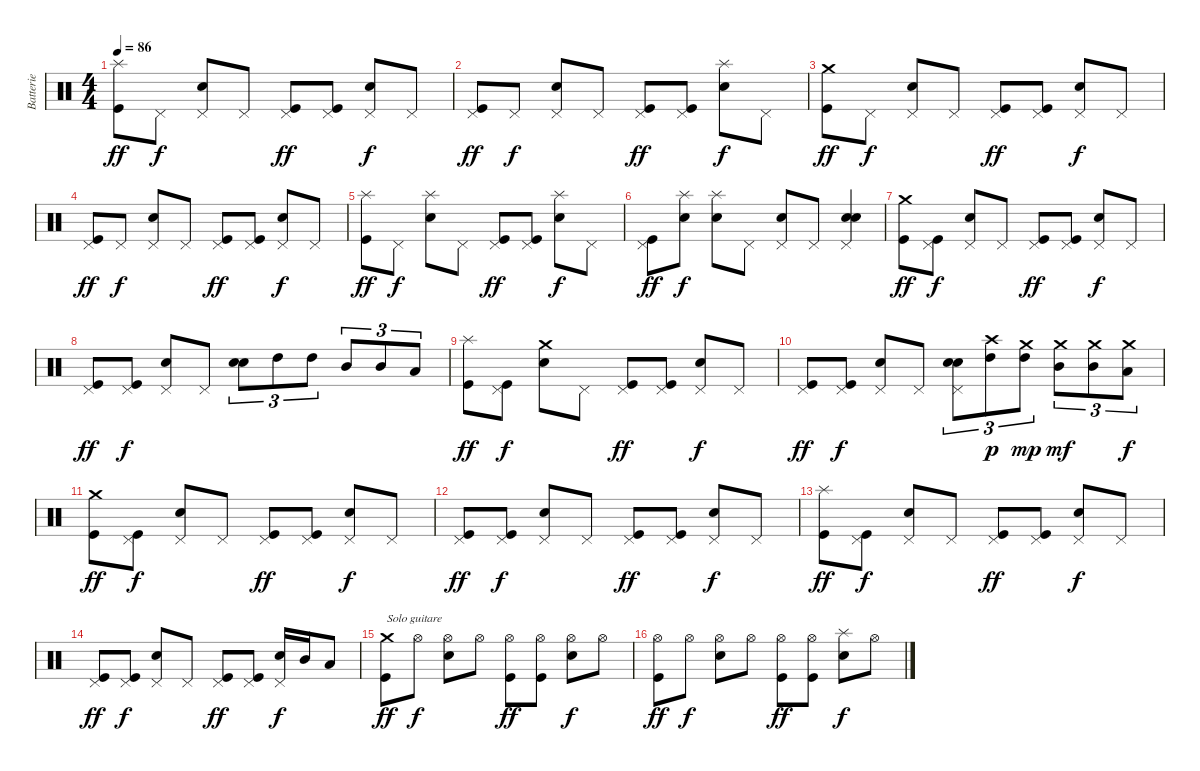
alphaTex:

\track ("Batterie" "Batterie") {instrument percussion}
\staff {score}
\articulation defaults
\ts (4 4)
\tempo 86
\clef neutral
\ks c
("Splash (hit)" "Kick (hit)").8{dy ff} "Pedal Hi-Hat (hit)".8{dy f} ("Pedal Hi-Hat (hit)" "Electric Snare (hit)").8 "Pedal Hi-Hat (hit)".8 ("Pedal Hi-Hat (hit)" "Kick (hit)").8{dy ff} ("Pedal Hi-Hat (hit)" "Kick (hit)").8 ("Pedal Hi-Hat (hit)" "Electric Snare (hit)").8{dy f} "Pedal Hi-Hat (hit)".8 |
("Pedal Hi-Hat (hit)" "Kick (hit)").8{dy ff} "Pedal Hi-Hat (hit)".8{dy f} ("Pedal Hi-Hat (hit)" "Electric Snare (hit)").8 "Pedal Hi-Hat (hit)".8 ("Pedal Hi-Hat (hit)" "Kick (hit)").8{dy ff} ("Pedal Hi-Hat (hit)" "Kick (hit)").8 ("Splash (hit)" "Electric Snare (hit)").8{dy f} "Pedal Hi-Hat (hit)".8 |
("Crash medium (hit)" "Kick (hit)").8{dy ff} "Pedal Hi-Hat (hit)".8{dy f} ("Pedal Hi-Hat (hit)" "Electric Snare (hit)").8 "Pedal Hi-Hat (hit)".8 ("Pedal Hi-Hat (hit)" "Kick (hit)").8{dy ff} ("Pedal Hi-Hat (hit)" "Kick (hit)").8 ("Pedal Hi-Hat (hit)" "Electric Snare (hit)").8{dy f} "Pedal Hi-Hat (hit)".8 |
("Pedal Hi-Hat (hit)" "Kick (hit)").8{dy ff} "Pedal Hi-Hat (hit)".8{dy f} ("Pedal Hi-Hat (hit)" "Electric Snare (hit)").8 "Pedal Hi-Hat (hit)".8 ("Pedal Hi-Hat (hit)" "Kick (hit)").8{dy ff} ("Pedal Hi-Hat (hit)" "Kick (hit)").8 ("Pedal Hi-Hat (hit)" "Electric Snare (hit)").8{dy f} "Pedal Hi-Hat (hit)".8 |
("Splash (hit)" "Kick (hit)").8{dy ff} "Pedal Hi-Hat (hit)".8{dy f} ("Splash (hit)" "Electric Snare (hit)").8 "Pedal Hi-Hat (hit)".8 ("Pedal Hi-Hat (hit)" "Kick (hit)").8{dy ff} ("Pedal Hi-Hat (hit)" "Kick (hit)").8 ("Splash (hit)" "Electric Snare (hit)").8{dy f} "Pedal Hi-Hat (hit)".8 |
("Pedal Hi-Hat (hit)" "Kick (hit)").8{dy ff} ("Splash (hit)" "Electric Snare (hit)").8{dy f} ("Splash (hit)" "Electric Snare (hit)").8 "Pedal Hi-Hat (hit)".8 ("Pedal Hi-Hat (hit)" "Electric Snare (hit)").8 "Pedal Hi-Hat (hit)".8 ("Pedal Hi-Hat (hit)" "Electric Snare (hit)" "Electric Snare (hit)").4{bu 120} |
("Crash medium (hit)" "Kick (hit)").8{dy ff} ("Pedal Hi-Hat (hit)" "Kick (hit)").8{dy f} ("Pedal Hi-Hat (hit)" "Electric Snare (hit)").8 "Pedal Hi-Hat (hit)".8 ("Pedal Hi-Hat (hit)" "Kick (hit)").8{dy ff} ("Pedal Hi-Hat (hit)" "Kick (hit)").8 ("Pedal Hi-Hat (hit)" "Electric Snare (hit)").8{dy f} "Pedal Hi-Hat (hit)".8 |
("Pedal Hi-Hat (hit)" "Kick (hit)").8{dy ff} ("Pedal Hi-Hat (hit)" "Kick (hit)").8{dy f} ("Pedal Hi-Hat (hit)" "Electric Snare (hit)").8 "Pedal Hi-Hat (hit)".8 ("Electric Snare (hit)" "Electric Snare (hit)").8{tu (3 2) bu 120} "High Tom (hit)".8{tu (3 2)} "High Tom (hit)".8{tu (3 2)} "Mid Tom (hit)".8{tu (3 2)} "Mid Tom (hit)".8{tu (3 2)} "Low Tom (hit)".8{tu (3 2)} |
("Splash (hit)" "Kick (hit)").8{dy ff} ("Pedal Hi-Hat (hit)" "Kick (hit)").8{dy f} ("Crash medium (hit)" "Electric Snare (hit)").8 "Pedal Hi-Hat (hit)".8 ("Pedal Hi-Hat (hit)" "Kick (hit)").8{dy ff} ("Pedal Hi-Hat (hit)" "Kick (hit)").8 ("Pedal Hi-Hat (hit)" "Electric Snare (hit)").8{dy f} "Pedal Hi-Hat (hit)".8 |
("Pedal Hi-Hat (hit)" "Kick (hit)").8{dy ff} ("Pedal Hi-Hat (hit)" "Kick (hit)").8{dy f} ("Pedal Hi-Hat (hit)" "Electric Snare (hit)").8 "Pedal Hi-Hat (hit)".8 ("Pedal Hi-Hat (hit)" "Electric Snare (hit)" "Electric Snare (hit)").8{tu (3 2) bu 120} ("Crash high (hit)" "High Tom (hit)").8{tu (3 2) dy p} ("Crash medium (hit)" "High Tom (hit)").8{tu (3 2) dy mp} ("Crash medium (hit)" "Mid Tom (hit)").8{tu (3 2) dy mf} ("Crash medium (hit)" "Mid Tom (hit)").8{tu (3 2)} ("Crash medium (hit)" "Low Tom (hit)").8{tu (3 2) dy f} |
("Crash medium (hit)" "Kick (hit)").8{dy ff} ("Pedal Hi-Hat (hit)" "Kick (hit)").8{dy f} ("Pedal Hi-Hat (hit)" "Electric Snare (hit)").8 "Pedal Hi-Hat (hit)".8 ("Pedal Hi-Hat (hit)" "Kick (hit)").8{dy ff} ("Pedal Hi-Hat (hit)" "Kick (hit)").8 ("Pedal Hi-Hat (hit)" "Electric Snare (hit)").8{dy f} "Pedal Hi-Hat (hit)".8 |
("Pedal Hi-Hat (hit)" "Kick (hit)").8{dy ff} ("Pedal Hi-Hat (hit)" "Kick (hit)").8{dy f} ("Pedal Hi-Hat (hit)" "Electric Snare (hit)").8 "Pedal Hi-Hat (hit)".8 ("Pedal Hi-Hat (hit)" "Kick (hit)").8{dy ff} ("Pedal Hi-Hat (hit)" "Kick (hit)").8 ("Pedal Hi-Hat (hit)" "Electric Snare (hit)").8{dy f} "Pedal Hi-Hat (hit)".8 |
("Splash (hit)" "Kick (hit)").8{dy ff} ("Pedal Hi-Hat (hit)" "Kick (hit)").8{dy f} ("Pedal Hi-Hat (hit)" "Electric Snare (hit)").8 "Pedal Hi-Hat (hit)".8 ("Pedal Hi-Hat (hit)" "Kick (hit)").8{dy ff} ("Pedal Hi-Hat (hit)" "Kick (hit)").8 ("Pedal Hi-Hat (hit)" "Electric Snare (hit)").8{dy f} "Pedal Hi-Hat (hit)".8 |
("Pedal Hi-Hat (hit)" "Kick (hit)").8{dy ff} ("Pedal Hi-Hat (hit)" "Kick (hit)").8{dy f} ("Pedal Hi-Hat (hit)" "Electric Snare (hit)").8 "Pedal Hi-Hat (hit)".8 ("Pedal Hi-Hat (hit)" "Kick (hit)").8{dy ff} ("Pedal Hi-Hat (hit)" "Kick (hit)").8 ("Pedal Hi-Hat (hit)" "Electric Snare (hit)").16{dy f} "Mid Tom (hit)".16 "Low Tom (hit)".8 |
("Crash medium (hit)" "Kick (hit)").8{txt "Solo guitare" dy ff} "Hi-Hat (open)".8{dy f} ("Hi-Hat (open)" "Electric Snare (hit)").8 "Hi-Hat (open)".8 ("Hi-Hat (open)" "Kick (hit)").8{dy ff} ("Hi-Hat (open)" "Kick (hit)").8 ("Hi-Hat (open)" "Electric Snare (hit)").8{dy f} "Hi-Hat (open)".8 |
("Hi-Hat (open)" "Kick (hit)").8{dy ff} "Hi-Hat (open)".8{dy f} ("Hi-Hat (open)" "Electric Snare (hit)").8 "Hi-Hat (open)".8 ("Hi-Hat (open)" "Kick (hit)").8{dy ff} ("Hi-Hat (open)" "Kick (hit)").8 ("Splash (hit)" "Electric Snare (hit)").8{dy f} "Hi-Hat (open)".8
